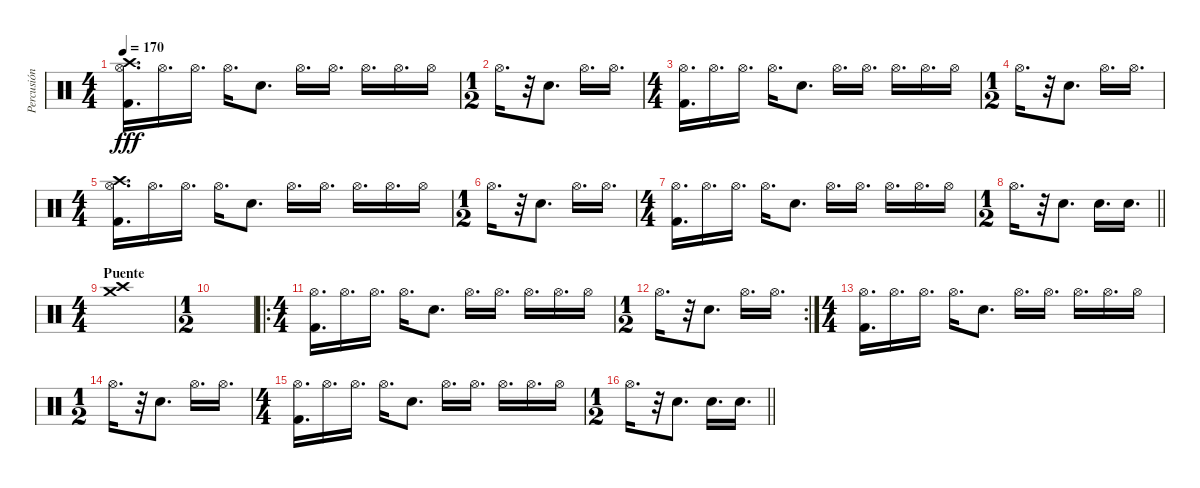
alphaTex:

\track ("Percusión" "Percusión") {instrument percussion}
\staff {score}
\articulation defaults
\ts (4 4)
\tempo 170
\clef neutral
\ks c
("Crash high (hit)" "Hi-Hat (open)" "Kick (hit) 2").16{d dy fff} "Hi-Hat (open)".16{d} "Hi-Hat (open)".16{d} "Hi-Hat (open)".16{d} "Electric Snare (hit)".8{d} "Hi-Hat (open)".16{d} "Hi-Hat (open)".16{d} "Hi-Hat (open)".16{d} "Hi-Hat (open)".16{d} "Hi-Hat (open)".16 |
\ts (1 2)
"Hi-Hat (open)".16{d} r.32 "Electric Snare (hit)".8{d} "Hi-Hat (open)".16{d} "Hi-Hat (open)".16{d} |
\ts (4 4)
("Hi-Hat (open)" "Kick (hit) 2").16{d} "Hi-Hat (open)".16{d} "Hi-Hat (open)".16{d} "Hi-Hat (open)".16{d} "Electric Snare (hit)".8{d} "Hi-Hat (open)".16{d} "Hi-Hat (open)".16{d} "Hi-Hat (open)".16{d} "Hi-Hat (open)".16{d} "Hi-Hat (open)".16 |
\ts (1 2)
"Hi-Hat (open)".16{d} r.32 "Electric Snare (hit)".8{d} "Hi-Hat (open)".16{d} "Hi-Hat (open)".16{d} |
\ts (4 4)
("Crash high (hit)" "Hi-Hat (open)" "Kick (hit) 2").16{d} "Hi-Hat (open)".16{d} "Hi-Hat (open)".16{d} "Hi-Hat (open)".16{d} "Electric Snare (hit)".8{d} "Hi-Hat (open)".16{d} "Hi-Hat (open)".16{d} "Hi-Hat (open)".16{d} "Hi-Hat (open)".16{d} "Hi-Hat (open)".16 |
\ts (1 2)
"Hi-Hat (open)".16{d} r.32 "Electric Snare (hit)".8{d} "Hi-Hat (open)".16{d} "Hi-Hat (open)".16{d} |
\ts (4 4)
("Hi-Hat (open)" "Kick (hit) 2").16{d} "Hi-Hat (open)".16{d} "Hi-Hat (open)".16{d} "Hi-Hat (open)".16{d} "Electric Snare (hit)".8{d} "Hi-Hat (open)".16{d} "Hi-Hat (open)".16{d} "Hi-Hat (open)".16{d} "Hi-Hat (open)".16{d} "Hi-Hat (open)".16 |
\ts (1 2)
\barLineRight lightlight "Hi-Hat (open)".16{d}
r.32 "Electric Snare (hit)".8{d} "Electric Snare (hit)".16{d} "Electric Snare (hit)".16{d} |
\ts (4 4)
\section ("" "Puente")
("Crash medium (hit)" "Crash high (hit)").1 |
\ts (1 2)
|
\ro
\ts (4 4)
("Hi-Hat (open)" "Kick (hit) 2").16{d} "Hi-Hat (open)".16{d} "Hi-Hat (open)".16{d} "Hi-Hat (open)".16{d} "Electric Snare (hit)".8{d} "Hi-Hat (open)".16{d} "Hi-Hat (open)".16{d} "Hi-Hat (open)".16{d} "Hi-Hat (open)".16{d} "Hi-Hat (open)".16 |
\rc 2
\ts (1 2)
"Hi-Hat (open)".16{d} r.32 "Electric Snare (hit)".8{d} "Hi-Hat (open)".16{d} "Hi-Hat (open)".16{d} |
\ts (4 4)
("Hi-Hat (open)" "Kick (hit) 2").16{d} "Hi-Hat (open)".16{d} "Hi-Hat (open)".16{d} "Hi-Hat (open)".16{d} "Electric Snare (hit)".8{d} "Hi-Hat (open)".16{d} "Hi-Hat (open)".16{d} "Hi-Hat (open)".16{d} "Hi-Hat (open)".16{d} "Hi-Hat (open)".16 |
\ts (1 2)
"Hi-Hat (open)".16{d} r.32 "Electric Snare (hit)".8{d} "Hi-Hat (open)".16{d} "Hi-Hat (open)".16{d} |
\ts (4 4)
("Hi-Hat (open)" "Kick (hit) 2").16{d} "Hi-Hat (open)".16{d} "Hi-Hat (open)".16{d} "Hi-Hat (open)".16{d} "Electric Snare (hit)".8{d} "Hi-Hat (open)".16{d} "Hi-Hat (open)".16{d} "Hi-Hat (open)".16{d} "Hi-Hat (open)".16{d} "Hi-Hat (open)".16 |
\ts (1 2)
\barLineRight lightlight "Hi-Hat (open)".16{d}
r.32 "Electric Snare (hit)".8{d} "Electric Snare (hit)".16{d} "Electric Snare (hit)".16{d}
